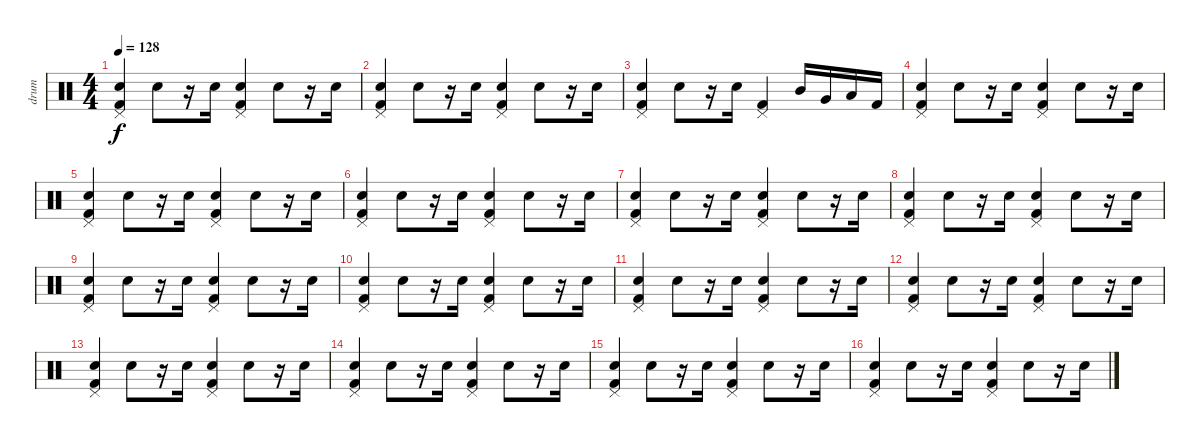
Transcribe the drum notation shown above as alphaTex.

\track ("drum" "drum") {instrument percussion}
\staff {score}
\articulation defaults
\ts (4 4)
\tempo 128
\clef neutral
\ks c
("Pedal Hi-Hat (hit)" "Kick (hit) 2" "Electric Snare (hit)").4{dy f} "Electric Snare (hit)".8 r.16 "Electric Snare (hit)".16 ("Pedal Hi-Hat (hit)" "Kick (hit) 2" "Electric Snare (hit)").4 "Electric Snare (hit)".8 r.16 "Electric Snare (hit)".16 |
("Pedal Hi-Hat (hit)" "Kick (hit) 2" "Electric Snare (hit)").4 "Electric Snare (hit)".8 r.16 "Electric Snare (hit)".16 ("Pedal Hi-Hat (hit)" "Kick (hit) 2" "Electric Snare (hit)").4 "Electric Snare (hit)".8 r.16 "Electric Snare (hit)".16 |
("Pedal Hi-Hat (hit)" "Kick (hit) 2" "Electric Snare (hit)").4 "Electric Snare (hit)".8 r.16 "Electric Snare (hit)".16 ("Pedal Hi-Hat (hit)" "Kick (hit) 2").4 "Mid Tom (hit)".16 "Very Low Tom (hit)".16 "Low Floor Tom (hit)".16 "Kick (hit) 2".16 |
("Pedal Hi-Hat (hit)" "Kick (hit) 2" "Electric Snare (hit)").4 "Electric Snare (hit)".8 r.16 "Electric Snare (hit)".16 ("Pedal Hi-Hat (hit)" "Kick (hit) 2" "Electric Snare (hit)").4 "Electric Snare (hit)".8 r.16 "Electric Snare (hit)".16 |
("Pedal Hi-Hat (hit)" "Kick (hit) 2" "Electric Snare (hit)").4 "Electric Snare (hit)".8 r.16 "Electric Snare (hit)".16 ("Pedal Hi-Hat (hit)" "Kick (hit) 2" "Electric Snare (hit)").4 "Electric Snare (hit)".8 r.16 "Electric Snare (hit)".16 |
("Pedal Hi-Hat (hit)" "Kick (hit) 2" "Electric Snare (hit)").4 "Electric Snare (hit)".8 r.16 "Electric Snare (hit)".16 ("Pedal Hi-Hat (hit)" "Kick (hit) 2" "Electric Snare (hit)").4 "Electric Snare (hit)".8 r.16 "Electric Snare (hit)".16 |
("Pedal Hi-Hat (hit)" "Kick (hit) 2" "Electric Snare (hit)").4 "Electric Snare (hit)".8 r.16 "Electric Snare (hit)".16 ("Pedal Hi-Hat (hit)" "Kick (hit) 2" "Electric Snare (hit)").4 "Electric Snare (hit)".8 r.16 "Electric Snare (hit)".16 |
("Pedal Hi-Hat (hit)" "Kick (hit) 2" "Electric Snare (hit)").4 "Electric Snare (hit)".8 r.16 "Electric Snare (hit)".16 ("Pedal Hi-Hat (hit)" "Kick (hit) 2" "Electric Snare (hit)").4 "Electric Snare (hit)".8 r.16 "Electric Snare (hit)".16 |
("Pedal Hi-Hat (hit)" "Kick (hit) 2" "Electric Snare (hit)").4 "Electric Snare (hit)".8 r.16 "Electric Snare (hit)".16 ("Pedal Hi-Hat (hit)" "Kick (hit) 2" "Electric Snare (hit)").4 "Electric Snare (hit)".8 r.16 "Electric Snare (hit)".16 |
("Pedal Hi-Hat (hit)" "Kick (hit) 2" "Electric Snare (hit)").4 "Electric Snare (hit)".8 r.16 "Electric Snare (hit)".16 ("Pedal Hi-Hat (hit)" "Kick (hit) 2" "Electric Snare (hit)").4 "Electric Snare (hit)".8 r.16 "Electric Snare (hit)".16 |
("Pedal Hi-Hat (hit)" "Kick (hit) 2" "Electric Snare (hit)").4 "Electric Snare (hit)".8 r.16 "Electric Snare (hit)".16 ("Pedal Hi-Hat (hit)" "Kick (hit) 2" "Electric Snare (hit)").4 "Electric Snare (hit)".8 r.16 "Electric Snare (hit)".16 |
("Pedal Hi-Hat (hit)" "Kick (hit) 2" "Electric Snare (hit)").4 "Electric Snare (hit)".8 r.16 "Electric Snare (hit)".16 ("Pedal Hi-Hat (hit)" "Kick (hit) 2" "Electric Snare (hit)").4 "Electric Snare (hit)".8 r.16 "Electric Snare (hit)".16 |
("Pedal Hi-Hat (hit)" "Kick (hit) 2" "Electric Snare (hit)").4 "Electric Snare (hit)".8 r.16 "Electric Snare (hit)".16 ("Pedal Hi-Hat (hit)" "Kick (hit) 2" "Electric Snare (hit)").4 "Electric Snare (hit)".8 r.16 "Electric Snare (hit)".16 |
("Pedal Hi-Hat (hit)" "Kick (hit) 2" "Electric Snare (hit)").4 "Electric Snare (hit)".8 r.16 "Electric Snare (hit)".16 ("Pedal Hi-Hat (hit)" "Kick (hit) 2" "Electric Snare (hit)").4 "Electric Snare (hit)".8 r.16 "Electric Snare (hit)".16 |
("Pedal Hi-Hat (hit)" "Kick (hit) 2" "Electric Snare (hit)").4 "Electric Snare (hit)".8 r.16 "Electric Snare (hit)".16 ("Pedal Hi-Hat (hit)" "Kick (hit) 2" "Electric Snare (hit)").4 "Electric Snare (hit)".8 r.16 "Electric Snare (hit)".16 |
("Pedal Hi-Hat (hit)" "Kick (hit) 2" "Electric Snare (hit)").4 "Electric Snare (hit)".8 r.16 "Electric Snare (hit)".16 ("Pedal Hi-Hat (hit)" "Kick (hit) 2" "Electric Snare (hit)").4 "Electric Snare (hit)".8 r.16 "Electric Snare (hit)".16
